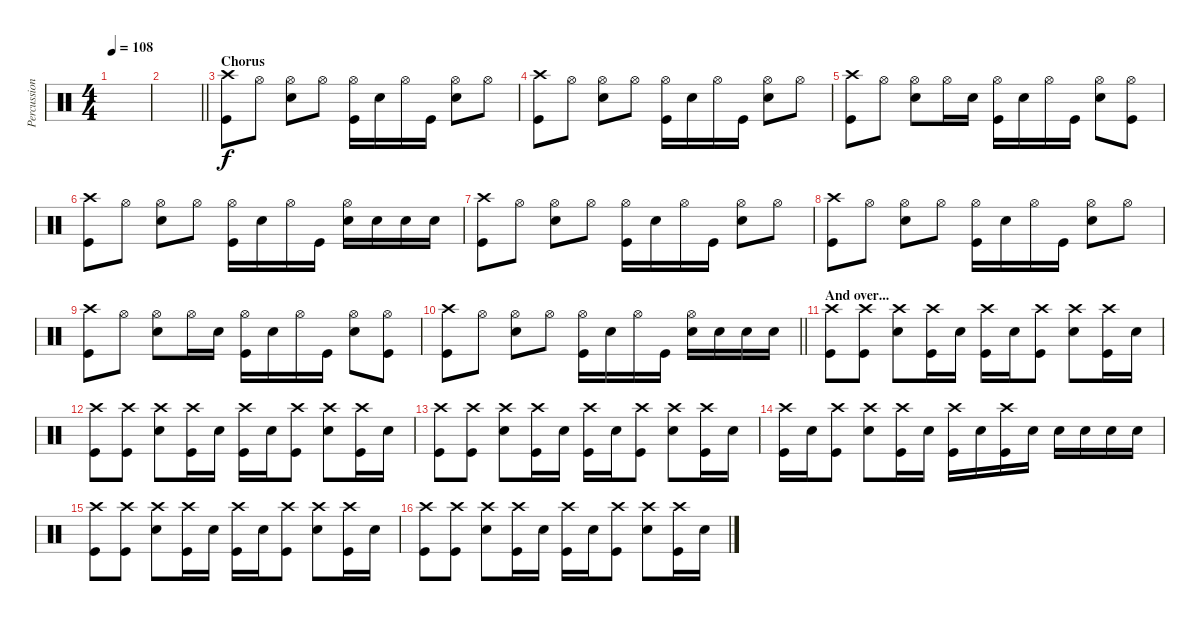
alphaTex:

\track ("Percussion" "Percussion") {instrument percussion}
\staff {score}
\articulation defaults
\ts (4 4)
\tempo 108
\clef neutral
\ks c
|
\barLineRight lightlight
|
\section ("" "Chorus")
("Crash high (hit)" "Kick (hit)").8 "Hi-Hat (open)".8 ("Hi-Hat (open)" "Electric Snare (hit)").8 "Hi-Hat (open)".8 ("Hi-Hat (open)" "Kick (hit)").16 "Electric Snare (hit)".16 "Hi-Hat (open)".16 "Kick (hit)".16 ("Hi-Hat (open)" "Electric Snare (hit)").8 "Hi-Hat (open)".8 |
("Crash high (hit)" "Kick (hit)").8 "Hi-Hat (open)".8 ("Hi-Hat (open)" "Electric Snare (hit)").8 "Hi-Hat (open)".8 ("Hi-Hat (open)" "Kick (hit)").16 "Electric Snare (hit)".16 "Hi-Hat (open)".16 "Kick (hit)".16 ("Hi-Hat (open)" "Electric Snare (hit)").8 "Hi-Hat (open)".8 |
("Crash high (hit)" "Kick (hit)").8 "Hi-Hat (open)".8 ("Hi-Hat (open)" "Electric Snare (hit)").8 "Hi-Hat (open)".16 "Electric Snare (hit)".16 ("Hi-Hat (open)" "Kick (hit)").16 "Electric Snare (hit)".16 "Hi-Hat (open)".16 "Kick (hit)".16 ("Hi-Hat (open)" "Electric Snare (hit)").8 ("Hi-Hat (open)" "Kick (hit)").8 |
("Crash high (hit)" "Kick (hit)").8 "Hi-Hat (open)".8 ("Hi-Hat (open)" "Electric Snare (hit)").8 "Hi-Hat (open)".8 ("Hi-Hat (open)" "Kick (hit)").16 "Electric Snare (hit)".16 "Hi-Hat (open)".16 "Kick (hit)".16 ("Hi-Hat (open)" "Electric Snare (hit)").16 "Electric Snare (hit)".16 "Electric Snare (hit)".16 "Electric Snare (hit)".16 |
("Crash high (hit)" "Kick (hit)").8 "Hi-Hat (open)".8 ("Hi-Hat (open)" "Electric Snare (hit)").8 "Hi-Hat (open)".8 ("Hi-Hat (open)" "Kick (hit)").16 "Electric Snare (hit)".16 "Hi-Hat (open)".16 "Kick (hit)".16 ("Hi-Hat (open)" "Electric Snare (hit)").8 "Hi-Hat (open)".8 |
("Crash high (hit)" "Kick (hit)").8 "Hi-Hat (open)".8 ("Hi-Hat (open)" "Electric Snare (hit)").8 "Hi-Hat (open)".8 ("Hi-Hat (open)" "Kick (hit)").16 "Electric Snare (hit)".16 "Hi-Hat (open)".16 "Kick (hit)".16 ("Hi-Hat (open)" "Electric Snare (hit)").8 "Hi-Hat (open)".8 |
("Crash high (hit)" "Kick (hit)").8 "Hi-Hat (open)".8 ("Hi-Hat (open)" "Electric Snare (hit)").8 "Hi-Hat (open)".16 "Electric Snare (hit)".16 ("Hi-Hat (open)" "Kick (hit)").16 "Electric Snare (hit)".16 "Hi-Hat (open)".16 "Kick (hit)".16 ("Hi-Hat (open)" "Electric Snare (hit)").8 ("Hi-Hat (open)" "Kick (hit)").8 |
\barLineRight lightlight
("Crash high (hit)" "Kick (hit)").8 "Hi-Hat (open)".8 ("Hi-Hat (open)" "Electric Snare (hit)").8 "Hi-Hat (open)".8 ("Hi-Hat (open)" "Kick (hit)").16 "Electric Snare (hit)".16 "Hi-Hat (open)".16 "Kick (hit)".16 ("Hi-Hat (open)" "Electric Snare (hit)").16 "Electric Snare (hit)".16 "Electric Snare (hit)".16 "Electric Snare (hit)".16 |
\section ("" "And over...")
("Crash high (hit)" "Kick (hit)").8 ("Crash high (hit)" "Kick (hit)").8 ("Crash high (hit)" "Electric Snare (hit)").8 ("Crash high (hit)" "Kick (hit)").16 "Electric Snare (hit)".16 ("Crash high (hit)" "Kick (hit)").16 "Electric Snare (hit)".16 ("Crash high (hit)" "Kick (hit)").8 ("Crash high (hit)" "Electric Snare (hit)").8 ("Crash high (hit)" "Kick (hit)").16 "Electric Snare (hit)".16 |
("Crash high (hit)" "Kick (hit)").8 ("Crash high (hit)" "Kick (hit)").8 ("Crash high (hit)" "Electric Snare (hit)").8 ("Crash high (hit)" "Kick (hit)").16 "Electric Snare (hit)".16 ("Crash high (hit)" "Kick (hit)").16 "Electric Snare (hit)".16 ("Crash high (hit)" "Kick (hit)").8 ("Crash high (hit)" "Electric Snare (hit)").8 ("Crash high (hit)" "Kick (hit)").16 "Electric Snare (hit)".16 |
("Crash high (hit)" "Kick (hit)").8 ("Crash high (hit)" "Kick (hit)").8 ("Crash high (hit)" "Electric Snare (hit)").8 ("Crash high (hit)" "Kick (hit)").16 "Electric Snare (hit)".16 ("Crash high (hit)" "Kick (hit)").16 "Electric Snare (hit)".16 ("Crash high (hit)" "Kick (hit)").8 ("Crash high (hit)" "Electric Snare (hit)").8 ("Crash high (hit)" "Kick (hit)").16 "Electric Snare (hit)".16 |
("Crash high (hit)" "Kick (hit)").16 "Electric Snare (hit)".16 ("Crash high (hit)" "Kick (hit)").8 ("Crash high (hit)" "Electric Snare (hit)").8 ("Crash high (hit)" "Kick (hit)").16 "Electric Snare (hit)".16 ("Crash high (hit)" "Kick (hit)").16 "Electric Snare (hit)".16 ("Crash high (hit)" "Kick (hit)").16 "Electric Snare (hit)".16 "Electric Snare (hit)".16 "Electric Snare (hit)".16 "Electric Snare (hit)".16 "Electric Snare (hit)".16 |
("Crash high (hit)" "Kick (hit)").8 ("Crash high (hit)" "Kick (hit)").8 ("Crash high (hit)" "Electric Snare (hit)").8 ("Crash high (hit)" "Kick (hit)").16 "Electric Snare (hit)".16 ("Crash high (hit)" "Kick (hit)").16 "Electric Snare (hit)".16 ("Crash high (hit)" "Kick (hit)").8 ("Crash high (hit)" "Electric Snare (hit)").8 ("Crash high (hit)" "Kick (hit)").16 "Electric Snare (hit)".16 |
("Crash high (hit)" "Kick (hit)").8 ("Crash high (hit)" "Kick (hit)").8 ("Crash high (hit)" "Electric Snare (hit)").8 ("Crash high (hit)" "Kick (hit)").16 "Electric Snare (hit)".16 ("Crash high (hit)" "Kick (hit)").16 "Electric Snare (hit)".16 ("Crash high (hit)" "Kick (hit)").8 ("Crash high (hit)" "Electric Snare (hit)").8 ("Crash high (hit)" "Kick (hit)").16 "Electric Snare (hit)".16
